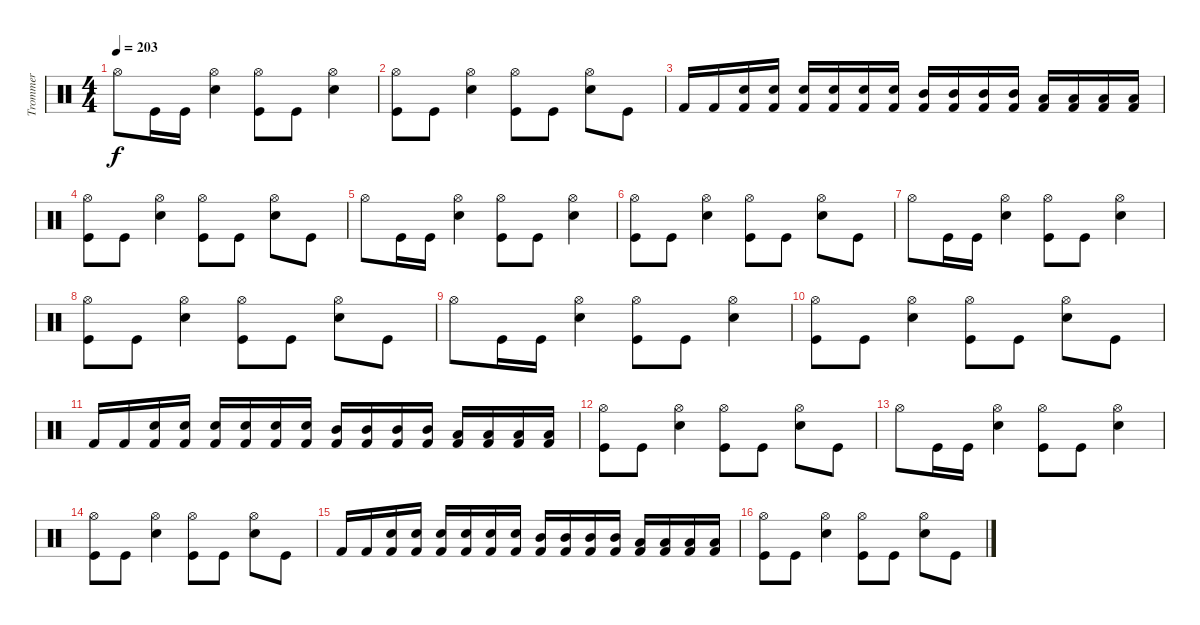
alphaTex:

\track ("Trommer" "Trommer") {instrument percussion}
\staff {score}
\articulation defaults
\ts (4 4)
\tempo 203
\clef neutral
\ks c "Hi-Hat (open)".8{dy f} "Kick (hit)".16 "Kick (hit)".16
("Snare (hit) 2" "Hi-Hat (open)").4 ("Kick (hit)" "Hi-Hat (open)").8 "Kick (hit)".8 ("Snare (hit) 2" "Hi-Hat (open)").4 |
("Hi-Hat (open)" "Kick (hit)").8 "Kick (hit)".8 ("Hi-Hat (open)" "Snare (hit) 2").4 ("Hi-Hat (open)" "Kick (hit)").8 "Kick (hit)".8 ("Snare (hit) 2" "Hi-Hat (open)").8 "Kick (hit)".8 |
"Kick (hit) 2".16 "Kick (hit) 2".16 ("Snare (hit) 2" "Kick (hit) 2").16 ("Snare (hit) 2" "Kick (hit) 2").16 ("Snare (hit) 2" "Kick (hit) 2").16 ("Snare (hit) 2" "Kick (hit) 2").16 ("Snare (hit) 2" "Kick (hit) 2").16 ("Snare (hit) 2" "Kick (hit) 2").16 ("Mid Tom (hit)" "Kick (hit) 2").16 ("Mid Tom (hit)" "Kick (hit) 2").16 ("Mid Tom (hit)" "Kick (hit) 2").16 ("Mid Tom (hit)" "Kick (hit) 2").16 ("Low Tom (hit)" "Kick (hit) 2").16 ("Low Tom (hit)" "Kick (hit) 2").16 ("Low Tom (hit)" "Kick (hit) 2").16 ("Low Tom (hit)" "Kick (hit) 2").16 |
("Hi-Hat (open)" "Kick (hit)").8 "Kick (hit)".8 ("Hi-Hat (open)" "Snare (hit) 2").4 ("Hi-Hat (open)" "Kick (hit)").8 "Kick (hit)".8 ("Snare (hit) 2" "Hi-Hat (open)").8 "Kick (hit)".8 |
"Hi-Hat (open)".8 "Kick (hit)".16 "Kick (hit)".16 ("Snare (hit) 2" "Hi-Hat (open)").4 ("Kick (hit)" "Hi-Hat (open)").8 "Kick (hit)".8 ("Snare (hit) 2" "Hi-Hat (open)").4 |
("Hi-Hat (open)" "Kick (hit)").8 "Kick (hit)".8 ("Hi-Hat (open)" "Snare (hit) 2").4 ("Hi-Hat (open)" "Kick (hit)").8 "Kick (hit)".8 ("Snare (hit) 2" "Hi-Hat (open)").8 "Kick (hit)".8 |
"Hi-Hat (open)".8 "Kick (hit)".16 "Kick (hit)".16 ("Snare (hit) 2" "Hi-Hat (open)").4 ("Kick (hit)" "Hi-Hat (open)").8 "Kick (hit)".8 ("Snare (hit) 2" "Hi-Hat (open)").4 |
("Hi-Hat (open)" "Kick (hit)").8 "Kick (hit)".8 ("Hi-Hat (open)" "Snare (hit) 2").4 ("Hi-Hat (open)" "Kick (hit)").8 "Kick (hit)".8 ("Snare (hit) 2" "Hi-Hat (open)").8 "Kick (hit)".8 |
"Hi-Hat (open)".8 "Kick (hit)".16 "Kick (hit)".16 ("Snare (hit) 2" "Hi-Hat (open)").4 ("Kick (hit)" "Hi-Hat (open)").8 "Kick (hit)".8 ("Snare (hit) 2" "Hi-Hat (open)").4 |
("Hi-Hat (open)" "Kick (hit)").8 "Kick (hit)".8 ("Hi-Hat (open)" "Snare (hit) 2").4 ("Hi-Hat (open)" "Kick (hit)").8 "Kick (hit)".8 ("Snare (hit) 2" "Hi-Hat (open)").8 "Kick (hit)".8 |
"Kick (hit) 2".16 "Kick (hit) 2".16 ("Snare (hit) 2" "Kick (hit) 2").16 ("Snare (hit) 2" "Kick (hit) 2").16 ("Snare (hit) 2" "Kick (hit) 2").16 ("Snare (hit) 2" "Kick (hit) 2").16 ("Snare (hit) 2" "Kick (hit) 2").16 ("Snare (hit) 2" "Kick (hit) 2").16 ("Mid Tom (hit)" "Kick (hit) 2").16 ("Mid Tom (hit)" "Kick (hit) 2").16 ("Mid Tom (hit)" "Kick (hit) 2").16 ("Mid Tom (hit)" "Kick (hit) 2").16 ("Low Tom (hit)" "Kick (hit) 2").16 ("Low Tom (hit)" "Kick (hit) 2").16 ("Low Tom (hit)" "Kick (hit) 2").16 ("Low Tom (hit)" "Kick (hit) 2").16 |
("Hi-Hat (open)" "Kick (hit)").8 "Kick (hit)".8 ("Hi-Hat (open)" "Snare (hit) 2").4 ("Hi-Hat (open)" "Kick (hit)").8 "Kick (hit)".8 ("Snare (hit) 2" "Hi-Hat (open)").8 "Kick (hit)".8 |
"Hi-Hat (open)".8 "Kick (hit)".16 "Kick (hit)".16 ("Snare (hit) 2" "Hi-Hat (open)").4 ("Kick (hit)" "Hi-Hat (open)").8 "Kick (hit)".8 ("Snare (hit) 2" "Hi-Hat (open)").4 |
("Hi-Hat (open)" "Kick (hit)").8 "Kick (hit)".8 ("Hi-Hat (open)" "Snare (hit) 2").4 ("Hi-Hat (open)" "Kick (hit)").8 "Kick (hit)".8 ("Snare (hit) 2" "Hi-Hat (open)").8 "Kick (hit)".8 |
"Kick (hit) 2".16 "Kick (hit) 2".16 ("Snare (hit) 2" "Kick (hit) 2").16 ("Snare (hit) 2" "Kick (hit) 2").16 ("Snare (hit) 2" "Kick (hit) 2").16 ("Snare (hit) 2" "Kick (hit) 2").16 ("Snare (hit) 2" "Kick (hit) 2").16 ("Snare (hit) 2" "Kick (hit) 2").16 ("Mid Tom (hit)" "Kick (hit) 2").16 ("Mid Tom (hit)" "Kick (hit) 2").16 ("Mid Tom (hit)" "Kick (hit) 2").16 ("Mid Tom (hit)" "Kick (hit) 2").16 ("Low Tom (hit)" "Kick (hit) 2").16 ("Low Tom (hit)" "Kick (hit) 2").16 ("Low Tom (hit)" "Kick (hit) 2").16 ("Low Tom (hit)" "Kick (hit) 2").16 |
("Hi-Hat (open)" "Kick (hit)").8 "Kick (hit)".8 ("Hi-Hat (open)" "Snare (hit) 2").4 ("Hi-Hat (open)" "Kick (hit)").8 "Kick (hit)".8 ("Snare (hit) 2" "Hi-Hat (open)").8 "Kick (hit)".8
